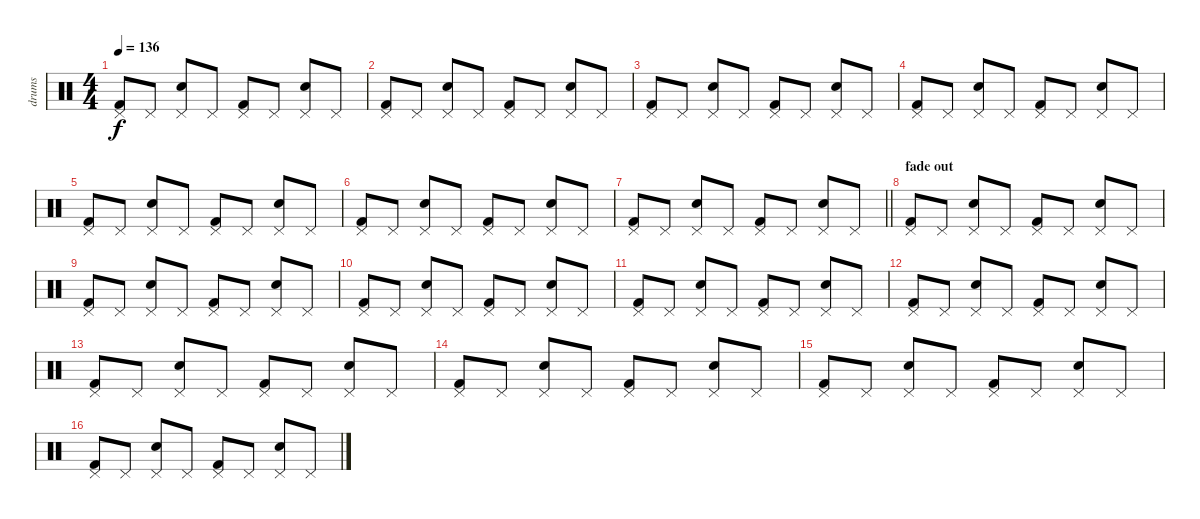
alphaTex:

\track ("drums" "drums") {instrument percussion}
\staff {score}
\articulation defaults
\ts (4 4)
\tempo 136
\clef neutral
\ks c
("Kick (hit) 2" "Pedal Hi-Hat (hit)").8{dy f} "Pedal Hi-Hat (hit)".8 ("Electric Snare (hit)" "Pedal Hi-Hat (hit)").8 "Pedal Hi-Hat (hit)".8 ("Kick (hit) 2" "Pedal Hi-Hat (hit)").8 "Pedal Hi-Hat (hit)".8 ("Electric Snare (hit)" "Pedal Hi-Hat (hit)").8 "Pedal Hi-Hat (hit)".8 |
("Kick (hit) 2" "Pedal Hi-Hat (hit)").8 "Pedal Hi-Hat (hit)".8 ("Electric Snare (hit)" "Pedal Hi-Hat (hit)").8 "Pedal Hi-Hat (hit)".8 ("Kick (hit) 2" "Pedal Hi-Hat (hit)").8 "Pedal Hi-Hat (hit)".8 ("Electric Snare (hit)" "Pedal Hi-Hat (hit)").8 "Pedal Hi-Hat (hit)".8 |
("Kick (hit) 2" "Pedal Hi-Hat (hit)").8 "Pedal Hi-Hat (hit)".8 ("Electric Snare (hit)" "Pedal Hi-Hat (hit)").8 "Pedal Hi-Hat (hit)".8 ("Kick (hit) 2" "Pedal Hi-Hat (hit)").8 "Pedal Hi-Hat (hit)".8 ("Electric Snare (hit)" "Pedal Hi-Hat (hit)").8 "Pedal Hi-Hat (hit)".8 |
("Kick (hit) 2" "Pedal Hi-Hat (hit)").8 "Pedal Hi-Hat (hit)".8 ("Electric Snare (hit)" "Pedal Hi-Hat (hit)").8 "Pedal Hi-Hat (hit)".8 ("Kick (hit) 2" "Pedal Hi-Hat (hit)").8 "Pedal Hi-Hat (hit)".8 ("Electric Snare (hit)" "Pedal Hi-Hat (hit)").8 "Pedal Hi-Hat (hit)".8 |
("Kick (hit) 2" "Pedal Hi-Hat (hit)").8 "Pedal Hi-Hat (hit)".8 ("Electric Snare (hit)" "Pedal Hi-Hat (hit)").8 "Pedal Hi-Hat (hit)".8 ("Kick (hit) 2" "Pedal Hi-Hat (hit)").8 "Pedal Hi-Hat (hit)".8 ("Electric Snare (hit)" "Pedal Hi-Hat (hit)").8 "Pedal Hi-Hat (hit)".8 |
("Kick (hit) 2" "Pedal Hi-Hat (hit)").8 "Pedal Hi-Hat (hit)".8 ("Electric Snare (hit)" "Pedal Hi-Hat (hit)").8 "Pedal Hi-Hat (hit)".8 ("Kick (hit) 2" "Pedal Hi-Hat (hit)").8 "Pedal Hi-Hat (hit)".8 ("Electric Snare (hit)" "Pedal Hi-Hat (hit)").8 "Pedal Hi-Hat (hit)".8 |
\barLineRight lightlight
("Kick (hit) 2" "Pedal Hi-Hat (hit)").8 "Pedal Hi-Hat (hit)".8 ("Electric Snare (hit)" "Pedal Hi-Hat (hit)").8 "Pedal Hi-Hat (hit)".8 ("Kick (hit) 2" "Pedal Hi-Hat (hit)").8 "Pedal Hi-Hat (hit)".8 ("Electric Snare (hit)" "Pedal Hi-Hat (hit)").8 "Pedal Hi-Hat (hit)".8 |
\section ("" "fade out")
("Kick (hit) 2" "Pedal Hi-Hat (hit)").8 "Pedal Hi-Hat (hit)".8 ("Electric Snare (hit)" "Pedal Hi-Hat (hit)").8 "Pedal Hi-Hat (hit)".8 ("Kick (hit) 2" "Pedal Hi-Hat (hit)").8 "Pedal Hi-Hat (hit)".8 ("Electric Snare (hit)" "Pedal Hi-Hat (hit)").8 "Pedal Hi-Hat (hit)".8 |
("Kick (hit) 2" "Pedal Hi-Hat (hit)").8 "Pedal Hi-Hat (hit)".8 ("Electric Snare (hit)" "Pedal Hi-Hat (hit)").8 "Pedal Hi-Hat (hit)".8 ("Kick (hit) 2" "Pedal Hi-Hat (hit)").8 "Pedal Hi-Hat (hit)".8 ("Electric Snare (hit)" "Pedal Hi-Hat (hit)").8 "Pedal Hi-Hat (hit)".8 |
("Kick (hit) 2" "Pedal Hi-Hat (hit)").8 "Pedal Hi-Hat (hit)".8 ("Electric Snare (hit)" "Pedal Hi-Hat (hit)").8 "Pedal Hi-Hat (hit)".8 ("Kick (hit) 2" "Pedal Hi-Hat (hit)").8 "Pedal Hi-Hat (hit)".8 ("Electric Snare (hit)" "Pedal Hi-Hat (hit)").8 "Pedal Hi-Hat (hit)".8 |
("Kick (hit) 2" "Pedal Hi-Hat (hit)").8 "Pedal Hi-Hat (hit)".8 ("Electric Snare (hit)" "Pedal Hi-Hat (hit)").8 "Pedal Hi-Hat (hit)".8 ("Kick (hit) 2" "Pedal Hi-Hat (hit)").8 "Pedal Hi-Hat (hit)".8 ("Electric Snare (hit)" "Pedal Hi-Hat (hit)").8 "Pedal Hi-Hat (hit)".8 |
("Kick (hit) 2" "Pedal Hi-Hat (hit)").8 "Pedal Hi-Hat (hit)".8 ("Electric Snare (hit)" "Pedal Hi-Hat (hit)").8 "Pedal Hi-Hat (hit)".8 ("Kick (hit) 2" "Pedal Hi-Hat (hit)").8 "Pedal Hi-Hat (hit)".8 ("Electric Snare (hit)" "Pedal Hi-Hat (hit)").8 "Pedal Hi-Hat (hit)".8 |
("Kick (hit) 2" "Pedal Hi-Hat (hit)").8 "Pedal Hi-Hat (hit)".8 ("Electric Snare (hit)" "Pedal Hi-Hat (hit)").8 "Pedal Hi-Hat (hit)".8 ("Kick (hit) 2" "Pedal Hi-Hat (hit)").8 "Pedal Hi-Hat (hit)".8 ("Electric Snare (hit)" "Pedal Hi-Hat (hit)").8 "Pedal Hi-Hat (hit)".8 |
("Kick (hit) 2" "Pedal Hi-Hat (hit)").8 "Pedal Hi-Hat (hit)".8 ("Electric Snare (hit)" "Pedal Hi-Hat (hit)").8 "Pedal Hi-Hat (hit)".8 ("Kick (hit) 2" "Pedal Hi-Hat (hit)").8 "Pedal Hi-Hat (hit)".8 ("Electric Snare (hit)" "Pedal Hi-Hat (hit)").8 "Pedal Hi-Hat (hit)".8 |
("Kick (hit) 2" "Pedal Hi-Hat (hit)").8 "Pedal Hi-Hat (hit)".8 ("Electric Snare (hit)" "Pedal Hi-Hat (hit)").8 "Pedal Hi-Hat (hit)".8 ("Kick (hit) 2" "Pedal Hi-Hat (hit)").8 "Pedal Hi-Hat (hit)".8 ("Electric Snare (hit)" "Pedal Hi-Hat (hit)").8 "Pedal Hi-Hat (hit)".8 |
("Kick (hit) 2" "Pedal Hi-Hat (hit)").8 "Pedal Hi-Hat (hit)".8 ("Electric Snare (hit)" "Pedal Hi-Hat (hit)").8 "Pedal Hi-Hat (hit)".8 ("Kick (hit) 2" "Pedal Hi-Hat (hit)").8 "Pedal Hi-Hat (hit)".8 ("Electric Snare (hit)" "Pedal Hi-Hat (hit)").8 "Pedal Hi-Hat (hit)".8
